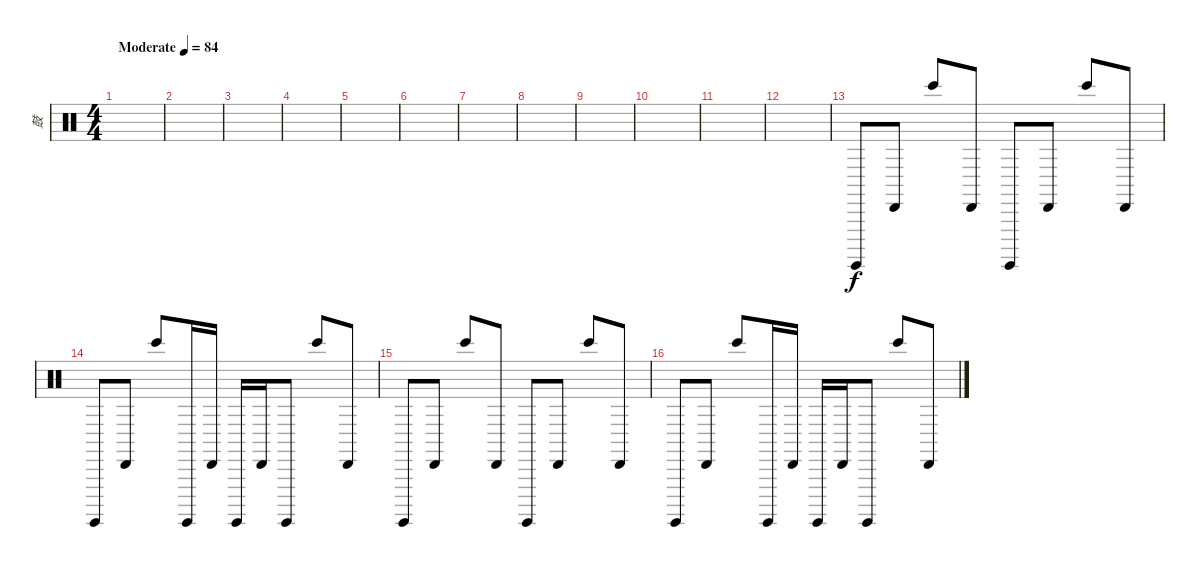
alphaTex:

\track ("鼓" "鼓") {instrument percussion}
\staff {score}
\articulation defaults
\ts (4 4)
\tempo (84 "Moderate")
\clef neutral
\ks c
|
|
|
|
|
|
|
|
|
|
|
|
"Surdo (hit)".8 "Cabasa (hit)".8 "Bongo High (hit)".8 "Cabasa (hit)".8 "Surdo (hit)".8 "Cabasa (hit)".8 "Bongo High (hit)".8 "Cabasa (hit)".8 |
"Surdo (hit)".8 "Cabasa (hit)".8 "Bongo High (hit)".8 "Surdo (hit)".16 "Cabasa (hit)".16 "Surdo (hit)".16 "Cabasa (hit)".16 "Surdo (hit)".8 "Bongo High (hit)".8 "Cabasa (hit)".8 |
"Surdo (hit)".8 "Cabasa (hit)".8 "Bongo High (hit)".8 "Cabasa (hit)".8 "Surdo (hit)".8 "Cabasa (hit)".8 "Bongo High (hit)".8 "Cabasa (hit)".8 |
"Surdo (hit)".8 "Cabasa (hit)".8 "Bongo High (hit)".8 "Surdo (hit)".16 "Cabasa (hit)".16 "Surdo (hit)".16 "Cabasa (hit)".16 "Surdo (hit)".8 "Bongo High (hit)".8 "Cabasa (hit)".8
